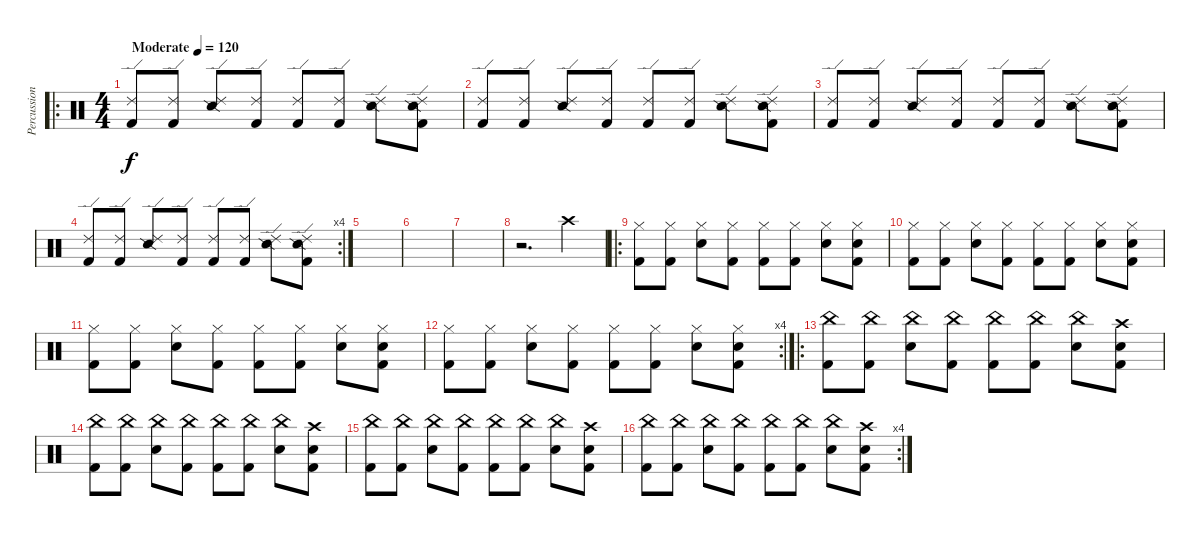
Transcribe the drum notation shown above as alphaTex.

\track ("Percussion" "Percussion") {instrument percussion}
\staff {score}
\articulation defaults
\ro
\ts (4 4)
\tempo (120 "Moderate")
\clef neutral
\ks c
("Ride (edge) 2" "Kick (hit) 2").8{dy f volume 8} ("Ride (edge) 2" "Kick (hit) 2").8 ("Ride (edge) 2" "Snare (side stick) 2").8 ("Ride (edge) 2" "Kick (hit) 2").8 ("Ride (edge) 2" "Kick (hit) 2").8 ("Ride (edge) 2" "Kick (hit) 2").8 ("Ride (edge) 2" "Snare (side stick) 2").8 ("Ride (edge) 2" "Snare (side stick) 2" "Kick (hit) 2").8 |
("Ride (edge) 2" "Kick (hit) 2").8 ("Ride (edge) 2" "Kick (hit) 2").8 ("Ride (edge) 2" "Snare (side stick) 2").8 ("Ride (edge) 2" "Kick (hit) 2").8 ("Ride (edge) 2" "Kick (hit) 2").8 ("Ride (edge) 2" "Kick (hit) 2").8 ("Ride (edge) 2" "Snare (side stick) 2").8 ("Ride (edge) 2" "Snare (side stick) 2" "Kick (hit) 2").8 |
("Ride (edge) 2" "Kick (hit) 2").8 ("Ride (edge) 2" "Kick (hit) 2").8 ("Ride (edge) 2" "Snare (side stick) 2").8 ("Ride (edge) 2" "Kick (hit) 2").8 ("Ride (edge) 2" "Kick (hit) 2").8 ("Ride (edge) 2" "Kick (hit) 2").8 ("Ride (edge) 2" "Snare (side stick) 2").8 ("Ride (edge) 2" "Snare (side stick) 2" "Kick (hit) 2").8 |
\rc 4
("Ride (edge) 2" "Kick (hit) 2").8 ("Ride (edge) 2" "Kick (hit) 2").8 ("Ride (edge) 2" "Snare (side stick) 2").8 ("Ride (edge) 2" "Kick (hit) 2").8 ("Ride (edge) 2" "Kick (hit) 2").8 ("Ride (edge) 2" "Kick (hit) 2").8 ("Ride (edge) 2" "Snare (side stick) 2").8 ("Ride (edge) 2" "Snare (side stick) 2" "Kick (hit) 2").8 |
|
|
|
r.2{d} "Crash high (hit)".4{volume 16} |
\ro
("Hi-Hat (closed)" "Kick (hit) 2").8 ("Hi-Hat (closed)" "Kick (hit) 2").8 ("Hi-Hat (closed)" "Snare (hit) 2").8 ("Hi-Hat (closed)" "Kick (hit) 2").8 ("Hi-Hat (closed)" "Kick (hit) 2").8 ("Hi-Hat (closed)" "Kick (hit) 2").8 ("Hi-Hat (closed)" "Snare (hit) 2").8 ("Hi-Hat (closed)" "Snare (hit) 2" "Kick (hit) 2").8 |
("Hi-Hat (closed)" "Kick (hit) 2").8 ("Hi-Hat (closed)" "Kick (hit) 2").8 ("Hi-Hat (closed)" "Snare (hit) 2").8 ("Hi-Hat (closed)" "Kick (hit) 2").8 ("Hi-Hat (closed)" "Kick (hit) 2").8 ("Hi-Hat (closed)" "Kick (hit) 2").8 ("Hi-Hat (closed)" "Snare (hit) 2").8 ("Hi-Hat (closed)" "Snare (hit) 2" "Kick (hit) 2").8 |
("Hi-Hat (closed)" "Kick (hit) 2").8 ("Hi-Hat (closed)" "Kick (hit) 2").8 ("Hi-Hat (closed)" "Snare (hit) 2").8 ("Hi-Hat (closed)" "Kick (hit) 2").8 ("Hi-Hat (closed)" "Kick (hit) 2").8 ("Hi-Hat (closed)" "Kick (hit) 2").8 ("Hi-Hat (closed)" "Snare (hit) 2").8 ("Hi-Hat (closed)" "Snare (hit) 2" "Kick (hit) 2").8 |
\rc 4
("Hi-Hat (closed)" "Kick (hit) 2").8 ("Hi-Hat (closed)" "Kick (hit) 2").8 ("Hi-Hat (closed)" "Snare (hit) 2").8 ("Hi-Hat (closed)" "Kick (hit) 2").8 ("Hi-Hat (closed)" "Kick (hit) 2").8 ("Hi-Hat (closed)" "Kick (hit) 2").8 ("Hi-Hat (closed)" "Snare (hit) 2").8 ("Hi-Hat (closed)" "Snare (hit) 2" "Kick (hit) 2").8 |
\ro
("China (hit)" "Kick (hit) 2").8 ("China (hit)" "Kick (hit) 2").8 ("China (hit)" "Snare (hit) 2").8 ("China (hit)" "Kick (hit) 2").8 ("China (hit)" "Kick (hit) 2").8 ("China (hit)" "Kick (hit) 2").8 ("China (hit)" "Snare (hit) 2").8 ("Crash high (hit)" "Snare (hit) 2" "Kick (hit) 2").8 |
("China (hit)" "Kick (hit) 2").8 ("China (hit)" "Kick (hit) 2").8 ("China (hit)" "Snare (hit) 2").8 ("China (hit)" "Kick (hit) 2").8 ("China (hit)" "Kick (hit) 2").8 ("China (hit)" "Kick (hit) 2").8 ("China (hit)" "Snare (hit) 2").8 ("Crash high (hit)" "Snare (hit) 2" "Kick (hit) 2").8 |
("China (hit)" "Kick (hit) 2").8 ("China (hit)" "Kick (hit) 2").8 ("China (hit)" "Snare (hit) 2").8 ("China (hit)" "Kick (hit) 2").8 ("China (hit)" "Kick (hit) 2").8 ("China (hit)" "Kick (hit) 2").8 ("China (hit)" "Snare (hit) 2").8 ("Crash high (hit)" "Snare (hit) 2" "Kick (hit) 2").8 |
\rc 4
("China (hit)" "Kick (hit) 2").8 ("China (hit)" "Kick (hit) 2").8 ("China (hit)" "Snare (hit) 2").8 ("China (hit)" "Kick (hit) 2").8 ("China (hit)" "Kick (hit) 2").8 ("China (hit)" "Kick (hit) 2").8 ("China (hit)" "Snare (hit) 2").8 ("Crash high (hit)" "Snare (hit) 2" "Kick (hit) 2").8
